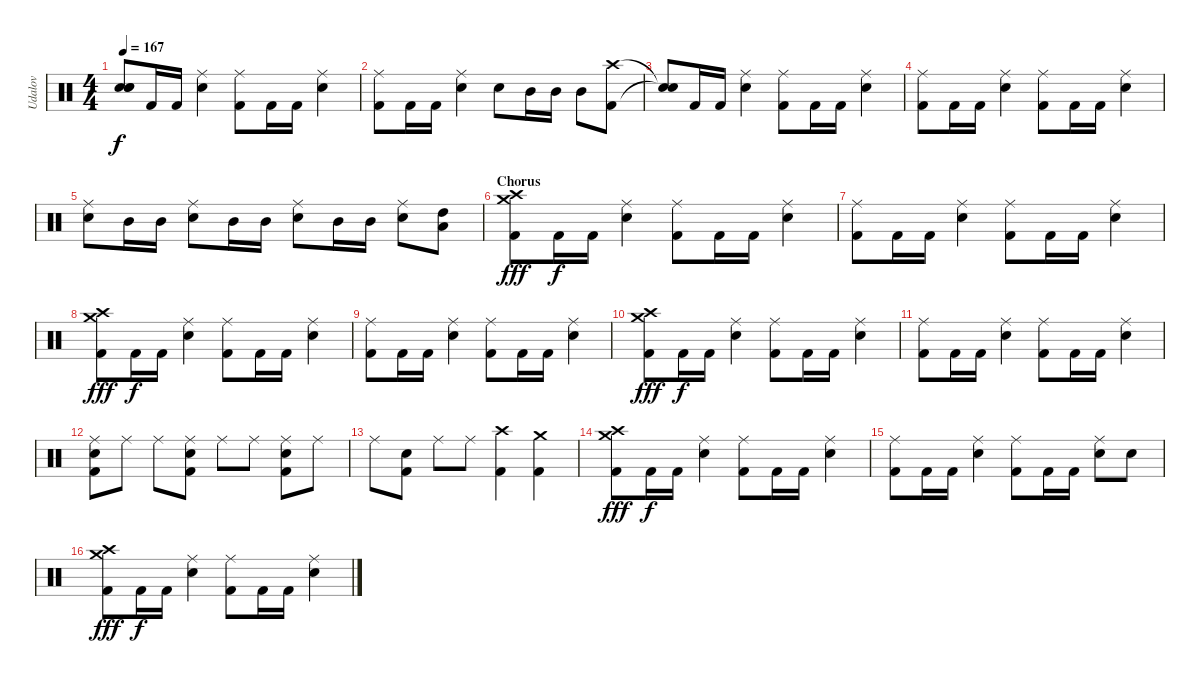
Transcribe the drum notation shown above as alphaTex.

\track ("Udalov" "Udalov") {instrument percussion}
\staff {score}
\articulation defaults
\ts (4 4)
\tempo 167
\clef neutral
\ks c
("Snare (hit)"{t} "Snare (hit)"{t} "Snare (hit)"{t}).8{dy f} "Kick (hit) 2".16 "Kick (hit) 2".16 ("Snare (hit) 2" "Ride (middle)").4 ("Kick (hit) 2" "Ride (middle)").8 "Kick (hit) 2".16 "Kick (hit) 2".16 ("Snare (hit) 2" "Ride (middle)").4 |
("Kick (hit) 2" "Ride (middle)").8 "Kick (hit) 2".16 "Kick (hit) 2".16 ("Snare (hit) 2" "Ride (middle)").4 "Snare (hit) 2".8 "Mid Tom (hit)".16 "Mid Tom (hit)".16 "Mid Tom (hit)".8 ("Kick (hit) 2" "Crash high (hit)").8 |
("Snare (hit)"{t} "Snare (hit)"{t}).8 "Kick (hit) 2".16 "Kick (hit) 2".16 ("Snare (hit) 2" "Ride (middle)").4 ("Kick (hit) 2" "Ride (middle)").8 "Kick (hit) 2".16 "Kick (hit) 2".16 ("Snare (hit) 2" "Ride (middle)").4 |
("Kick (hit) 2" "Ride (middle)").8 "Kick (hit) 2".16 "Kick (hit) 2".16 ("Snare (hit) 2" "Ride (middle)").4 ("Kick (hit) 2" "Ride (middle)").8 "Kick (hit) 2".16 "Kick (hit) 2".16 ("Snare (hit) 2" "Ride (middle)").4 |
("Electric Snare (hit)" "Ride (middle)").8 "Mid Tom (hit)".16 "Mid Tom (hit)".16 ("Electric Snare (hit)" "Ride (middle)").8 "Mid Tom (hit)".16 "Mid Tom (hit)".16 ("Electric Snare (hit)" "Ride (middle)").8 "Mid Tom (hit)".16 "Mid Tom (hit)".16 ("Electric Snare (hit)" "Ride (middle)").8 ("High Tom (hit)" "Low Tom (hit)").8 |
\section ("" "Chorus")
("Kick (hit) 2" "Crash high (hit)" "Crash medium (hit)").8{dy fff} "Kick (hit) 2".16{dy f} "Kick (hit) 2".16 ("Snare (hit) 2" "Ride (middle)").4 ("Kick (hit) 2" "Ride (middle)").8 "Kick (hit) 2".16 "Kick (hit) 2".16 ("Snare (hit) 2" "Ride (middle)").4 |
("Kick (hit) 2" "Ride (middle)").8 "Kick (hit) 2".16 "Kick (hit) 2".16 ("Snare (hit) 2" "Ride (middle)").4 ("Kick (hit) 2" "Ride (middle)").8 "Kick (hit) 2".16 "Kick (hit) 2".16 ("Snare (hit) 2" "Ride (middle)").4 |
("Kick (hit) 2" "Crash high (hit)" "Crash medium (hit)").8{dy fff} "Kick (hit) 2".16{dy f} "Kick (hit) 2".16 ("Snare (hit) 2" "Ride (middle)").4 ("Kick (hit) 2" "Ride (middle)").8 "Kick (hit) 2".16 "Kick (hit) 2".16 ("Snare (hit) 2" "Ride (middle)").4 |
("Kick (hit) 2" "Ride (middle)").8 "Kick (hit) 2".16 "Kick (hit) 2".16 ("Snare (hit) 2" "Ride (middle)").4 ("Kick (hit) 2" "Ride (middle)").8 "Kick (hit) 2".16 "Kick (hit) 2".16 ("Snare (hit) 2" "Ride (middle)").4 |
("Kick (hit) 2" "Crash high (hit)" "Crash medium (hit)").8{dy fff} "Kick (hit) 2".16{dy f} "Kick (hit) 2".16 ("Snare (hit) 2" "Ride (middle)").4 ("Kick (hit) 2" "Ride (middle)").8 "Kick (hit) 2".16 "Kick (hit) 2".16 ("Snare (hit) 2" "Ride (middle)").4 |
("Kick (hit) 2" "Ride (middle)").8 "Kick (hit) 2".16 "Kick (hit) 2".16 ("Snare (hit) 2" "Ride (middle)").4 ("Kick (hit) 2" "Ride (middle)").8 "Kick (hit) 2".16 "Kick (hit) 2".16 ("Snare (hit) 2" "Ride (middle)").4 |
("Electric Snare (hit)" "Ride (middle)" "Kick (hit) 2").8 "Ride (middle)".8 "Ride (middle)".8 ("Electric Snare (hit)" "Ride (middle)" "Kick (hit) 2").8 "Ride (middle)".8 "Ride (middle)".8 ("Electric Snare (hit)" "Ride (middle)" "Kick (hit) 2").8 "Ride (middle)".8 |
"Ride (middle)".8 ("Electric Snare (hit)" "Kick (hit) 2").8 "Ride (middle)".8 "Ride (middle)".8 ("Kick (hit) 2" "Crash high (hit)").4 ("Kick (hit) 2" "Crash medium (hit)").4 |
("Kick (hit) 2" "Crash high (hit)" "Crash medium (hit)").8{dy fff} "Kick (hit) 2".16{dy f} "Kick (hit) 2".16 ("Snare (hit) 2" "Ride (middle)").4 ("Kick (hit) 2" "Ride (middle)").8 "Kick (hit) 2".16 "Kick (hit) 2".16 ("Snare (hit) 2" "Ride (middle)").4 |
("Kick (hit) 2" "Ride (middle)").8 "Kick (hit) 2".16 "Kick (hit) 2".16 ("Snare (hit) 2" "Ride (middle)").4 ("Kick (hit) 2" "Ride (middle)").8 "Kick (hit) 2".16 "Kick (hit) 2".16 ("Snare (hit) 2" "Ride (middle)").8 "Snare (hit) 2".8 |
("Kick (hit) 2" "Crash high (hit)" "Crash medium (hit)").8{dy fff} "Kick (hit) 2".16{dy f} "Kick (hit) 2".16 ("Snare (hit) 2" "Ride (middle)").4 ("Kick (hit) 2" "Ride (middle)").8 "Kick (hit) 2".16 "Kick (hit) 2".16 ("Snare (hit) 2" "Ride (middle)").4
